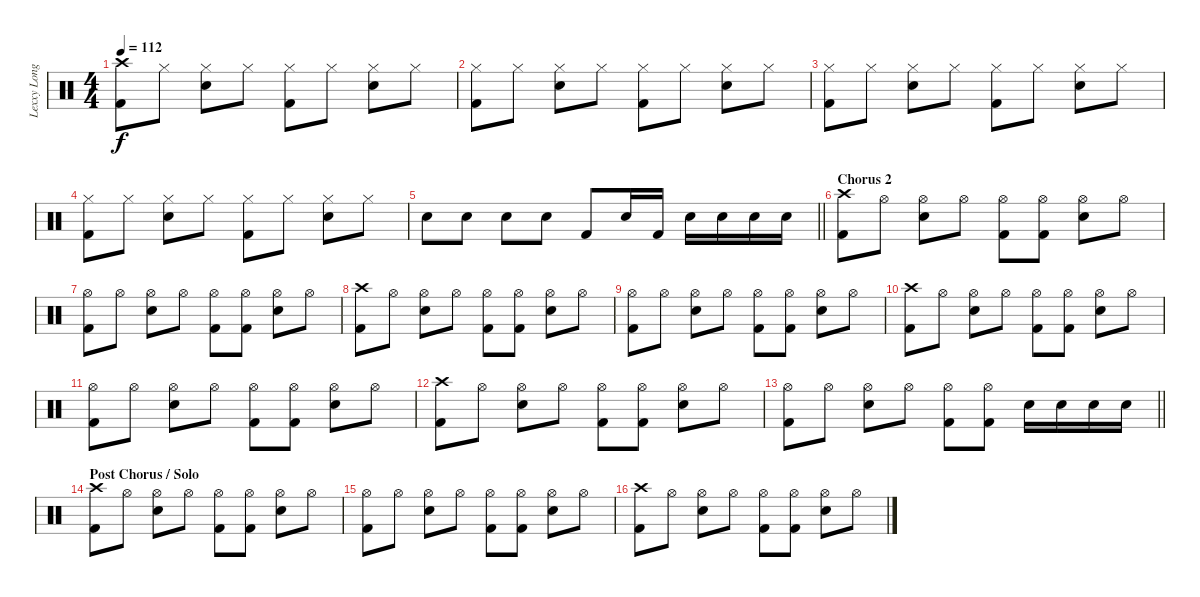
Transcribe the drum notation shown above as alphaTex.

\track ("Lexxy Longlegz (Chuto)" "Lexxy Long") {instrument percussion}
\staff {score}
\articulation defaults
\ts (4 4)
\tempo 112
\clef neutral
\ks c
("Crash high (hit)" "Kick (hit) 2").8{dy f} "Hi-Hat (closed)".8 ("Hi-Hat (closed)" "Snare (hit) 2").8 "Hi-Hat (closed)".8 ("Hi-Hat (closed)" "Kick (hit) 2").8 "Hi-Hat (closed)".8 ("Hi-Hat (closed)" "Snare (hit) 2").8 "Hi-Hat (closed)".8 |
("Hi-Hat (closed)" "Kick (hit) 2").8 "Hi-Hat (closed)".8 ("Hi-Hat (closed)" "Snare (hit) 2").8 "Hi-Hat (closed)".8 ("Hi-Hat (closed)" "Kick (hit) 2").8 "Hi-Hat (closed)".8 ("Hi-Hat (closed)" "Snare (hit) 2").8 "Hi-Hat (closed)".8 |
("Hi-Hat (closed)" "Kick (hit) 2").8 "Hi-Hat (closed)".8 ("Hi-Hat (closed)" "Snare (hit) 2").8 "Hi-Hat (closed)".8 ("Hi-Hat (closed)" "Kick (hit) 2").8 "Hi-Hat (closed)".8 ("Hi-Hat (closed)" "Snare (hit) 2").8 "Hi-Hat (closed)".8 |
("Hi-Hat (closed)" "Kick (hit) 2").8 "Hi-Hat (closed)".8 ("Hi-Hat (closed)" "Snare (hit) 2").8 "Hi-Hat (closed)".8 ("Hi-Hat (closed)" "Kick (hit) 2").8 "Hi-Hat (closed)".8 ("Hi-Hat (closed)" "Snare (hit) 2").8 "Hi-Hat (closed)".8 |
\barLineRight lightlight "Snare (hit) 2".8 "Snare (hit) 2".8 "Snare (hit) 2".8 "Snare (hit) 2".8 "Kick (hit) 2".8 "Snare (hit) 2".16 "Kick (hit) 2".16 "Snare (hit) 2".16 "Snare (hit) 2".16 "Snare (hit) 2".16 "Snare (hit) 2".16
|
\section ("" "Chorus 2")
("Crash high (hit)" "Kick (hit) 2").8 "Hi-Hat (open)".8 ("Hi-Hat (open)" "Snare (hit) 2").8 "Hi-Hat (open)".8 ("Hi-Hat (open)" "Kick (hit) 2").8 ("Hi-Hat (open)" "Kick (hit) 2").8 ("Hi-Hat (open)" "Snare (hit) 2").8 "Hi-Hat (open)".8 |
("Hi-Hat (open)" "Kick (hit) 2").8 "Hi-Hat (open)".8 ("Hi-Hat (open)" "Snare (hit) 2").8 "Hi-Hat (open)".8 ("Hi-Hat (open)" "Kick (hit) 2").8 ("Hi-Hat (open)" "Kick (hit) 2").8 ("Hi-Hat (open)" "Snare (hit) 2").8 "Hi-Hat (open)".8 |
("Crash high (hit)" "Kick (hit) 2").8 "Hi-Hat (open)".8 ("Hi-Hat (open)" "Snare (hit) 2").8 "Hi-Hat (open)".8 ("Hi-Hat (open)" "Kick (hit) 2").8 ("Hi-Hat (open)" "Kick (hit) 2").8 ("Hi-Hat (open)" "Snare (hit) 2").8 "Hi-Hat (open)".8 |
("Hi-Hat (open)" "Kick (hit) 2").8 "Hi-Hat (open)".8 ("Hi-Hat (open)" "Snare (hit) 2").8 "Hi-Hat (open)".8 ("Hi-Hat (open)" "Kick (hit) 2").8 ("Hi-Hat (open)" "Kick (hit) 2").8 ("Hi-Hat (open)" "Snare (hit) 2").8 "Hi-Hat (open)".8 |
("Crash high (hit)" "Kick (hit) 2").8 "Hi-Hat (open)".8 ("Hi-Hat (open)" "Snare (hit) 2").8 "Hi-Hat (open)".8 ("Hi-Hat (open)" "Kick (hit) 2").8 ("Hi-Hat (open)" "Kick (hit) 2").8 ("Hi-Hat (open)" "Snare (hit) 2").8 "Hi-Hat (open)".8 |
("Hi-Hat (open)" "Kick (hit) 2").8 "Hi-Hat (open)".8 ("Hi-Hat (open)" "Snare (hit) 2").8 "Hi-Hat (open)".8 ("Hi-Hat (open)" "Kick (hit) 2").8 ("Hi-Hat (open)" "Kick (hit) 2").8 ("Hi-Hat (open)" "Snare (hit) 2").8 "Hi-Hat (open)".8 |
("Crash high (hit)" "Kick (hit) 2").8 "Hi-Hat (open)".8 ("Hi-Hat (open)" "Snare (hit) 2").8 "Hi-Hat (open)".8 ("Hi-Hat (open)" "Kick (hit) 2").8 ("Hi-Hat (open)" "Kick (hit) 2").8 ("Hi-Hat (open)" "Snare (hit) 2").8 "Hi-Hat (open)".8 |
\barLineRight lightlight
("Hi-Hat (open)" "Kick (hit) 2").8 "Hi-Hat (open)".8 ("Hi-Hat (open)" "Snare (hit) 2").8 "Hi-Hat (open)".8 ("Hi-Hat (open)" "Kick (hit) 2").8 ("Hi-Hat (open)" "Kick (hit) 2").8 "Snare (hit) 2".16 "Snare (hit) 2".16 "Snare (hit) 2".16 "Snare (hit) 2".16 |
\section ("" "Post Chorus / Solo")
("Crash high (hit)" "Kick (hit) 2").8 "Hi-Hat (open)".8 ("Hi-Hat (open)" "Snare (hit) 2").8 "Hi-Hat (open)".8 ("Hi-Hat (open)" "Kick (hit) 2").8 ("Hi-Hat (open)" "Kick (hit) 2").8 ("Hi-Hat (open)" "Snare (hit) 2").8 "Hi-Hat (open)".8 |
("Hi-Hat (open)" "Kick (hit) 2").8 "Hi-Hat (open)".8 ("Hi-Hat (open)" "Snare (hit) 2").8 "Hi-Hat (open)".8 ("Hi-Hat (open)" "Kick (hit) 2").8 ("Hi-Hat (open)" "Kick (hit) 2").8 ("Hi-Hat (open)" "Snare (hit) 2").8 "Hi-Hat (open)".8 |
("Crash high (hit)" "Kick (hit) 2").8 "Hi-Hat (open)".8 ("Hi-Hat (open)" "Snare (hit) 2").8 "Hi-Hat (open)".8 ("Hi-Hat (open)" "Kick (hit) 2").8 ("Hi-Hat (open)" "Kick (hit) 2").8 ("Hi-Hat (open)" "Snare (hit) 2").8 "Hi-Hat (open)".8
